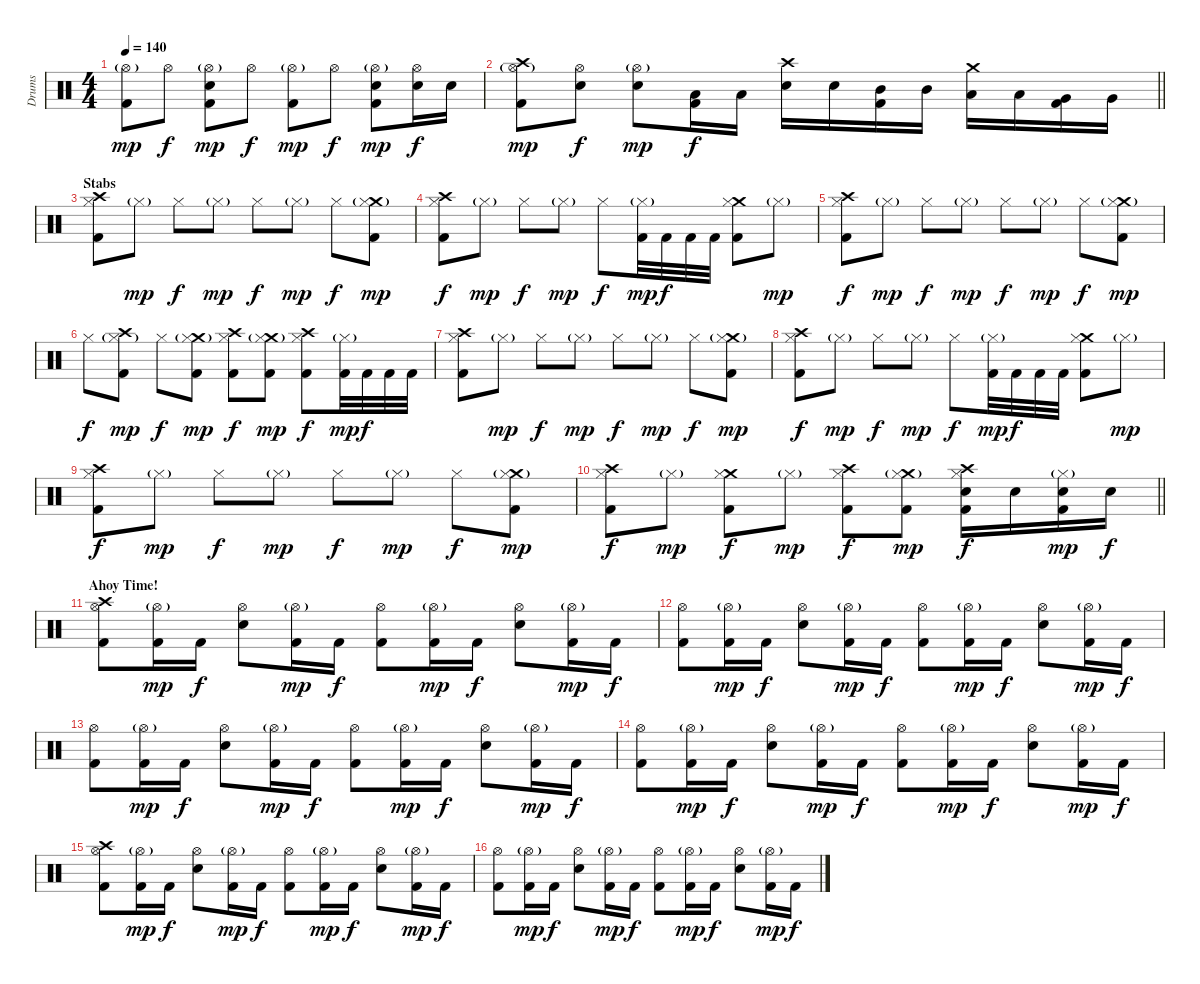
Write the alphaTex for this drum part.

\track ("Drums" "Drums") {instrument percussion}
\staff {score}
\articulation defaults
\ts (4 4)
\tempo 140
\clef neutral
\ks c
("Hi-Hat (open)"{g} "Kick (hit) 2").8{dy mp} "Hi-Hat (open)".8{dy f} ("Hi-Hat (open)"{g} "Snare (hit) 2" "Kick (hit) 2").8{dy mp} "Hi-Hat (open)".8{dy f} ("Hi-Hat (open)"{g} "Kick (hit) 2").8{dy mp} "Hi-Hat (open)".8{dy f} ("Hi-Hat (open)"{g} "Snare (hit) 2" "Kick (hit) 2").8{dy mp} ("Hi-Hat (open)" "Snare (hit) 2").16{dy f} "Snare (hit) 2".16 |
\barLineRight lightlight
("Crash high (hit)" "Hi-Hat (open)"{g} "Kick (hit) 2").8{dy mp} ("Hi-Hat (open)" "Snare (hit) 2").8{dy f} ("Hi-Hat (open)"{g} "Snare (hit) 2").8{dy mp} ("Low Tom (hit)" "Kick (hit) 2").16{dy f} "Low Tom (hit)".16 ("Crash high (hit)" "Snare (hit) 2").16 "Snare (hit) 2".16 ("Mid Tom (hit)" "Kick (hit) 2").16 "Mid Tom (hit)".16 ("Crash medium (hit)" "Low Tom (hit)").16 "Low Tom (hit)".16 ("Very Low Tom (hit)" "Kick (hit) 2").16 "Very Low Tom (hit)".16 |
\section ("" "Stabs")
("Crash high (hit)" "Hi-Hat (closed)" "Kick (hit) 2").8 "Hi-Hat (closed)"{g}.8{dy mp} "Hi-Hat (closed)".8{dy f} "Hi-Hat (closed)"{g}.8{dy mp} "Hi-Hat (closed)".8{dy f} "Hi-Hat (closed)"{g}.8{dy mp} "Hi-Hat (closed)".8{dy f} ("Crash medium (hit)" "Hi-Hat (closed)"{g} "Kick (hit) 2").8{dy mp} |
("Crash high (hit)" "Hi-Hat (closed)" "Kick (hit) 2").8{dy f} "Hi-Hat (closed)"{g}.8{dy mp} "Hi-Hat (closed)".8{dy f} "Hi-Hat (closed)"{g}.8{dy mp} "Hi-Hat (closed)".8{dy f} ("Hi-Hat (closed)"{g} "Kick (hit) 2").32{dy mp} "Kick (hit) 2".32{dy f} "Kick (hit) 2".32 "Kick (hit) 2".32 ("Crash medium (hit)" "Hi-Hat (closed)" "Kick (hit) 2").8 "Hi-Hat (closed)"{g}.8{dy mp} |
("Crash high (hit)" "Hi-Hat (closed)" "Kick (hit) 2").8{dy f} "Hi-Hat (closed)"{g}.8{dy mp} "Hi-Hat (closed)".8{dy f} "Hi-Hat (closed)"{g}.8{dy mp} "Hi-Hat (closed)".8{dy f} "Hi-Hat (closed)"{g}.8{dy mp} "Hi-Hat (closed)".8{dy f} ("Crash medium (hit)" "Hi-Hat (closed)"{g} "Kick (hit) 2").8{dy mp} |
"Hi-Hat (closed)".8{dy f} ("Crash high (hit)" "Hi-Hat (closed)"{g} "Kick (hit) 2").8{dy mp} "Hi-Hat (closed)".8{dy f} ("Crash medium (hit)" "Hi-Hat (closed)"{g} "Kick (hit) 2").8{dy mp} ("Crash high (hit)" "Hi-Hat (closed)" "Kick (hit) 2").8{dy f} ("Crash medium (hit)" "Hi-Hat (closed)"{g} "Kick (hit) 2").8{dy mp} ("Crash high (hit)" "Hi-Hat (closed)" "Kick (hit) 2").8{dy f} ("Hi-Hat (closed)"{g} "Kick (hit) 2").32{dy mp} "Kick (hit) 2".32{dy f} "Kick (hit) 2".32 "Kick (hit) 2".32 |
("Crash high (hit)" "Hi-Hat (closed)" "Kick (hit) 2").8 "Hi-Hat (closed)"{g}.8{dy mp} "Hi-Hat (closed)".8{dy f} "Hi-Hat (closed)"{g}.8{dy mp} "Hi-Hat (closed)".8{dy f} "Hi-Hat (closed)"{g}.8{dy mp} "Hi-Hat (closed)".8{dy f} ("Crash medium (hit)" "Hi-Hat (closed)"{g} "Kick (hit) 2").8{dy mp} |
("Crash high (hit)" "Hi-Hat (closed)" "Kick (hit) 2").8{dy f} "Hi-Hat (closed)"{g}.8{dy mp} "Hi-Hat (closed)".8{dy f} "Hi-Hat (closed)"{g}.8{dy mp} "Hi-Hat (closed)".8{dy f} ("Hi-Hat (closed)"{g} "Kick (hit) 2").32{dy mp} "Kick (hit) 2".32{dy f} "Kick (hit) 2".32 "Kick (hit) 2".32 ("Crash medium (hit)" "Hi-Hat (closed)" "Kick (hit) 2").8 "Hi-Hat (closed)"{g}.8{dy mp} |
("Crash high (hit)" "Hi-Hat (closed)" "Kick (hit) 2").8{dy f} "Hi-Hat (closed)"{g}.8{dy mp} "Hi-Hat (closed)".8{dy f} "Hi-Hat (closed)"{g}.8{dy mp} "Hi-Hat (closed)".8{dy f} "Hi-Hat (closed)"{g}.8{dy mp} "Hi-Hat (closed)".8{dy f} ("Crash medium (hit)" "Hi-Hat (closed)"{g} "Kick (hit) 2").8{dy mp} |
\barLineRight lightlight
("Crash high (hit)" "Hi-Hat (closed)" "Kick (hit) 2").8{dy f} "Hi-Hat (closed)"{g}.8{dy mp} ("Crash medium (hit)" "Hi-Hat (closed)" "Kick (hit) 2").8{dy f} "Hi-Hat (closed)"{g}.8{dy mp} ("Crash high (hit)" "Hi-Hat (closed)" "Kick (hit) 2").8{dy f} ("Crash medium (hit)" "Hi-Hat (closed)"{g} "Kick (hit) 2").8{dy mp} ("Crash high (hit)" "Hi-Hat (closed)" "Snare (hit) 2" "Kick (hit) 2").16{dy f} "Snare (hit) 2".16 ("Hi-Hat (closed)"{g} "Snare (hit) 2" "Kick (hit) 2").16{dy mp} "Snare (hit) 2".16{dy f} |
\section ("" "Ahoy Time!")
("Crash high (hit)" "Hi-Hat (open)" "Kick (hit) 2").8 ("Hi-Hat (open)"{g} "Kick (hit) 2").16{dy mp} "Kick (hit) 2".16{dy f} ("Hi-Hat (open)" "Snare (hit) 2").8 ("Hi-Hat (open)"{g} "Kick (hit) 2").16{dy mp} "Kick (hit) 2".16{dy f} ("Hi-Hat (open)" "Kick (hit) 2").8 ("Hi-Hat (open)"{g} "Kick (hit) 2").16{dy mp} "Kick (hit) 2".16{dy f} ("Hi-Hat (open)" "Snare (hit) 2").8 ("Hi-Hat (open)"{g} "Kick (hit) 2").16{dy mp} "Kick (hit) 2".16{dy f} |
("Hi-Hat (open)" "Kick (hit) 2").8 ("Hi-Hat (open)"{g} "Kick (hit) 2").16{dy mp} "Kick (hit) 2".16{dy f} ("Hi-Hat (open)" "Snare (hit) 2").8 ("Hi-Hat (open)"{g} "Kick (hit) 2").16{dy mp} "Kick (hit) 2".16{dy f} ("Hi-Hat (open)" "Kick (hit) 2").8 ("Hi-Hat (open)"{g} "Kick (hit) 2").16{dy mp} "Kick (hit) 2".16{dy f} ("Hi-Hat (open)" "Snare (hit) 2").8 ("Hi-Hat (open)"{g} "Kick (hit) 2").16{dy mp} "Kick (hit) 2".16{dy f} |
("Hi-Hat (open)" "Kick (hit) 2").8 ("Hi-Hat (open)"{g} "Kick (hit) 2").16{dy mp} "Kick (hit) 2".16{dy f} ("Hi-Hat (open)" "Snare (hit) 2").8 ("Hi-Hat (open)"{g} "Kick (hit) 2").16{dy mp} "Kick (hit) 2".16{dy f} ("Hi-Hat (open)" "Kick (hit) 2").8 ("Hi-Hat (open)"{g} "Kick (hit) 2").16{dy mp} "Kick (hit) 2".16{dy f} ("Hi-Hat (open)" "Snare (hit) 2").8 ("Hi-Hat (open)"{g} "Kick (hit) 2").16{dy mp} "Kick (hit) 2".16{dy f} |
("Hi-Hat (open)" "Kick (hit) 2").8 ("Hi-Hat (open)"{g} "Kick (hit) 2").16{dy mp} "Kick (hit) 2".16{dy f} ("Hi-Hat (open)" "Snare (hit) 2").8 ("Hi-Hat (open)"{g} "Kick (hit) 2").16{dy mp} "Kick (hit) 2".16{dy f} ("Hi-Hat (open)" "Kick (hit) 2").8 ("Hi-Hat (open)"{g} "Kick (hit) 2").16{dy mp} "Kick (hit) 2".16{dy f} ("Hi-Hat (open)" "Snare (hit) 2").8 ("Hi-Hat (open)"{g} "Kick (hit) 2").16{dy mp} "Kick (hit) 2".16{dy f} |
("Crash high (hit)" "Hi-Hat (open)" "Kick (hit) 2").8 ("Hi-Hat (open)"{g} "Kick (hit) 2").16{dy mp} "Kick (hit) 2".16{dy f} ("Hi-Hat (open)" "Snare (hit) 2").8 ("Hi-Hat (open)"{g} "Kick (hit) 2").16{dy mp} "Kick (hit) 2".16{dy f} ("Hi-Hat (open)" "Kick (hit) 2").8 ("Hi-Hat (open)"{g} "Kick (hit) 2").16{dy mp} "Kick (hit) 2".16{dy f} ("Hi-Hat (open)" "Snare (hit) 2").8 ("Hi-Hat (open)"{g} "Kick (hit) 2").16{dy mp} "Kick (hit) 2".16{dy f} |
("Hi-Hat (open)" "Kick (hit) 2").8 ("Hi-Hat (open)"{g} "Kick (hit) 2").16{dy mp} "Kick (hit) 2".16{dy f} ("Hi-Hat (open)" "Snare (hit) 2").8 ("Hi-Hat (open)"{g} "Kick (hit) 2").16{dy mp} "Kick (hit) 2".16{dy f} ("Hi-Hat (open)" "Kick (hit) 2").8 ("Hi-Hat (open)"{g} "Kick (hit) 2").16{dy mp} "Kick (hit) 2".16{dy f} ("Hi-Hat (open)" "Snare (hit) 2").8 ("Hi-Hat (open)"{g} "Kick (hit) 2").16{dy mp} "Kick (hit) 2".16{dy f}
